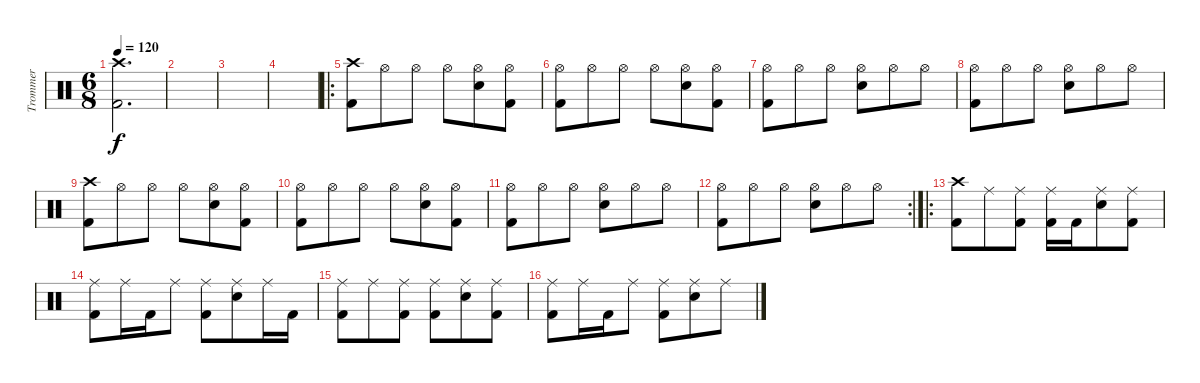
\track ("Trommer" "Trommer") {instrument percussion}
\staff {score}
\articulation defaults
\ts (6 8)
\tempo 120
\clef neutral
\ks c
("Kick (hit) 2" "Crash high (hit)").2{d dy f} |
|
|
|
\ro
("Kick (hit) 2" "Crash high (hit)").8 "Hi-Hat (open)".8 "Hi-Hat (open)".8 "Hi-Hat (open)".8 ("Snare (hit) 2" "Hi-Hat (open)").8 ("Kick (hit) 2" "Hi-Hat (open)").8 |
("Kick (hit) 2" "Hi-Hat (open)").8 "Hi-Hat (open)".8 "Hi-Hat (open)".8 "Hi-Hat (open)".8 ("Snare (hit) 2" "Hi-Hat (open)").8 ("Kick (hit) 2" "Hi-Hat (open)").8 |
("Kick (hit) 2" "Hi-Hat (open)").8 "Hi-Hat (open)".8 "Hi-Hat (open)".8 ("Snare (hit) 2" "Hi-Hat (open)").8 "Hi-Hat (open)".8 "Hi-Hat (open)".8 |
("Kick (hit) 2" "Hi-Hat (open)").8 "Hi-Hat (open)".8 "Hi-Hat (open)".8 ("Snare (hit) 2" "Hi-Hat (open)").8 "Hi-Hat (open)".8 "Hi-Hat (open)".8 |
("Kick (hit) 2" "Crash high (hit)").8 "Hi-Hat (open)".8 "Hi-Hat (open)".8 "Hi-Hat (open)".8 ("Snare (hit) 2" "Hi-Hat (open)").8 ("Kick (hit) 2" "Hi-Hat (open)").8 |
("Kick (hit) 2" "Hi-Hat (open)").8 "Hi-Hat (open)".8 "Hi-Hat (open)".8 "Hi-Hat (open)".8 ("Snare (hit) 2" "Hi-Hat (open)").8 ("Kick (hit) 2" "Hi-Hat (open)").8 |
("Kick (hit) 2" "Hi-Hat (open)").8 "Hi-Hat (open)".8 "Hi-Hat (open)".8 ("Snare (hit) 2" "Hi-Hat (open)").8 "Hi-Hat (open)".8 "Hi-Hat (open)".8 |
\rc 2
("Kick (hit) 2" "Hi-Hat (open)").8 "Hi-Hat (open)".8 "Hi-Hat (open)".8 ("Snare (hit) 2" "Hi-Hat (open)").8 "Hi-Hat (open)".8 "Hi-Hat (open)".8 |
\ro
("Kick (hit) 2" "Crash high (hit)").8 "Ride (middle)".8 ("Kick (hit) 2" "Ride (middle)").8 ("Kick (hit) 2" "Ride (middle)").16 "Kick (hit) 2".16 ("Snare (hit) 2" "Ride (middle)").8 ("Kick (hit) 2" "Ride (middle)").8 |
("Kick (hit) 2" "Ride (middle)").8 "Ride (middle)".16 "Kick (hit) 2".16 "Ride (middle)".8 ("Kick (hit) 2" "Ride (middle)").8 ("Snare (hit) 2" "Ride (middle)").8 "Ride (middle)".16 "Kick (hit) 2".16 |
("Kick (hit) 2" "Ride (middle)").8 "Ride (middle)".8 ("Kick (hit) 2" "Ride (middle)").8 ("Kick (hit) 2" "Ride (middle)").8 ("Snare (hit) 2" "Ride (middle)").8 ("Kick (hit) 2" "Ride (middle)").8 |
("Kick (hit) 2" "Ride (middle)").8 "Ride (middle)".16 "Kick (hit) 2".16 "Ride (middle)".8 ("Kick (hit) 2" "Ride (middle)").8 ("Snare (hit) 2" "Ride (middle)").8 "Ride (middle)".8
